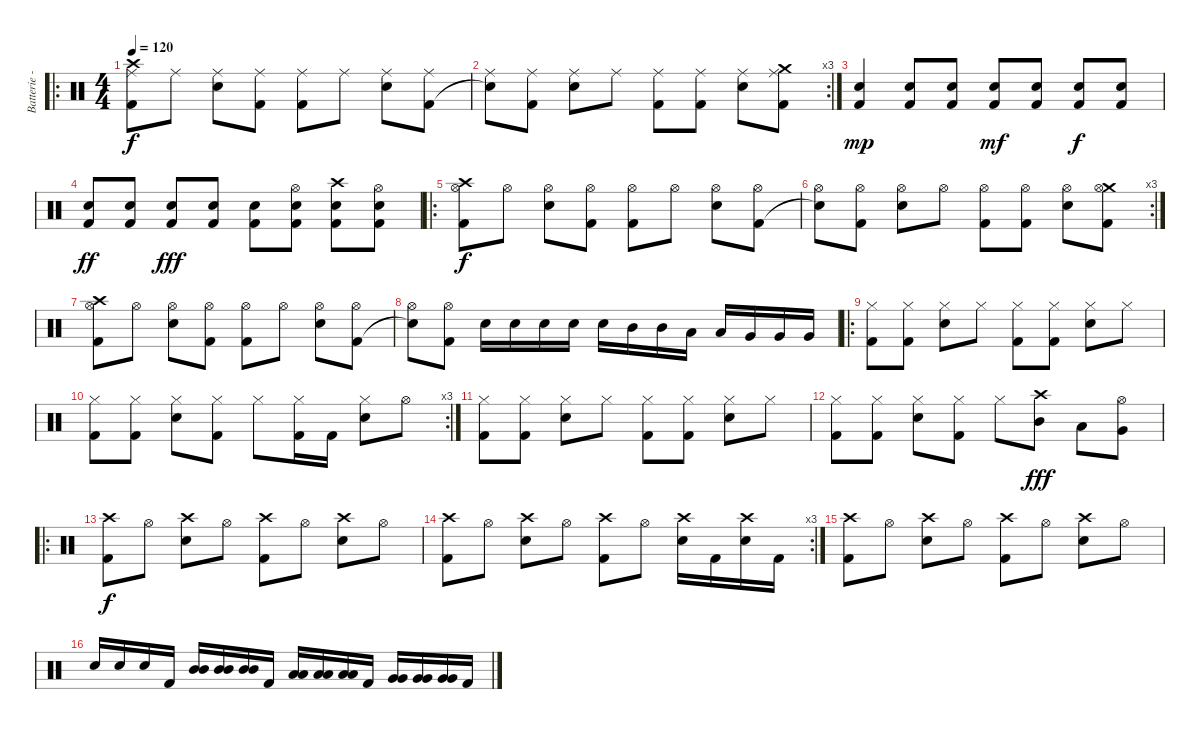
\track ("Batterie - Joe" "Batterie -") {instrument percussion}
\staff {score}
\articulation defaults
\ro
\ts (4 4)
\tempo 120
\clef neutral
\ks c
("Crash high (hit)" "Ride (middle)" "Kick (hit) 2").8{dy f} "Ride (middle)".8 ("Ride (middle)" "Electric Snare (hit)").8 ("Ride (middle)" "Kick (hit) 2").8 ("Ride (middle)" "Kick (hit) 2").8 "Ride (middle)".8 ("Ride (middle)" "Electric Snare (hit)").8 ("Ride (middle)" "Kick (hit) 2").8 |
\rc 3
("Ride (middle)" "Snare (hit)"{t}).8 ("Ride (middle)" "Kick (hit) 2").8 ("Ride (middle)" "Electric Snare (hit)").8 "Ride (middle)".8 ("Ride (middle)" "Kick (hit) 2").8 ("Ride (middle)" "Kick (hit) 2").8 ("Ride (middle)" "Electric Snare (hit)").8 ("Crash medium (hit)" "Ride (middle)" "Kick (hit) 2").8 |
("Electric Snare (hit)" "Kick (hit) 2").4{dy mp} ("Electric Snare (hit)" "Kick (hit) 2").8 ("Electric Snare (hit)" "Kick (hit) 2").8 ("Electric Snare (hit)" "Kick (hit) 2").8{dy mf} ("Electric Snare (hit)" "Kick (hit) 2").8 ("Electric Snare (hit)" "Kick (hit) 2").8{dy f} ("Electric Snare (hit)" "Kick (hit) 2").8 |
("Electric Snare (hit)" "Kick (hit) 2").8{dy ff} ("Electric Snare (hit)" "Kick (hit) 2").8 ("Electric Snare (hit)" "Kick (hit) 2").8{dy fff} ("Electric Snare (hit)" "Kick (hit) 2").8 ("Electric Snare (hit)" "Kick (hit) 2").8 ("Hi-Hat (open)" "Electric Snare (hit)" "Kick (hit) 2").8 ("Crash high (hit)" "Electric Snare (hit)" "Kick (hit) 2").8 ("Hi-Hat (open)" "Electric Snare (hit)" "Kick (hit) 2").8 |
\ro
("Crash high (hit)" "Hi-Hat (open)" "Kick (hit) 2").8{dy f} "Hi-Hat (open)".8 ("Hi-Hat (open)" "Electric Snare (hit)").8 ("Hi-Hat (open)" "Kick (hit) 2").8 ("Hi-Hat (open)" "Kick (hit) 2").8 "Hi-Hat (open)".8 ("Hi-Hat (open)" "Electric Snare (hit)").8 ("Hi-Hat (open)" "Kick (hit) 2").8 |
\rc 3
("Hi-Hat (open)" "Snare (hit)"{t}).8 ("Hi-Hat (open)" "Kick (hit) 2").8 ("Hi-Hat (open)" "Electric Snare (hit)").8 "Hi-Hat (open)".8 ("Hi-Hat (open)" "Kick (hit) 2").8 ("Hi-Hat (open)" "Kick (hit) 2").8 ("Hi-Hat (open)" "Electric Snare (hit)").8 ("Crash medium (hit)" "Hi-Hat (open)" "Kick (hit) 2").8 |
("Crash high (hit)" "Hi-Hat (open)" "Kick (hit) 2").8 "Hi-Hat (open)".8 ("Hi-Hat (open)" "Electric Snare (hit)").8 ("Hi-Hat (open)" "Kick (hit) 2").8 ("Hi-Hat (open)" "Kick (hit) 2").8 "Hi-Hat (open)".8 ("Hi-Hat (open)" "Electric Snare (hit)").8 ("Hi-Hat (open)" "Kick (hit) 2").8 |
("Hi-Hat (open)" "Snare (hit)"{t}).8 ("Hi-Hat (open)" "Kick (hit) 2").8 "Electric Snare (hit)".16 "Electric Snare (hit)".16 "Electric Snare (hit)".16 "Electric Snare (hit)".16 "Electric Snare (hit)".16 "Mid Tom (hit)".16 "Mid Tom (hit)".16 "Low Tom (hit)".16 "Low Tom (hit)".16 "Very Low Tom (hit)".16 "Very Low Tom (hit)".16 "Very Low Tom (hit)".16 |
\ro
("Hi-Hat (closed)" "Kick (hit) 2").8 ("Hi-Hat (closed)" "Kick (hit) 2").8 ("Hi-Hat (closed)" "Electric Snare (hit)").8 "Hi-Hat (closed)".8 ("Hi-Hat (closed)" "Kick (hit) 2").8 ("Hi-Hat (closed)" "Kick (hit) 2").8 ("Hi-Hat (closed)" "Electric Snare (hit)").8 "Hi-Hat (closed)".8 |
\rc 3
("Hi-Hat (closed)" "Kick (hit) 2").8 ("Hi-Hat (closed)" "Kick (hit) 2").8 ("Hi-Hat (closed)" "Electric Snare (hit)").8 ("Hi-Hat (closed)" "Kick (hit) 2").8 "Hi-Hat (closed)".8 ("Hi-Hat (closed)" "Kick (hit) 2").16 "Kick (hit) 2".16 ("Hi-Hat (closed)" "Electric Snare (hit)").8 "Hi-Hat (open)".8 |
("Hi-Hat (closed)" "Kick (hit) 2").8 ("Hi-Hat (closed)" "Kick (hit) 2").8 ("Hi-Hat (closed)" "Electric Snare (hit)").8 "Hi-Hat (closed)".8 ("Hi-Hat (closed)" "Kick (hit) 2").8 ("Hi-Hat (closed)" "Kick (hit) 2").8 ("Hi-Hat (closed)" "Electric Snare (hit)").8 "Hi-Hat (closed)".8 |
("Hi-Hat (closed)" "Kick (hit) 2").8 ("Hi-Hat (closed)" "Kick (hit) 2").8 ("Hi-Hat (closed)" "Electric Snare (hit)").8 ("Hi-Hat (closed)" "Kick (hit) 2").8 "Hi-Hat (closed)".8 ("Mid Tom (hit)" "Crash high (hit)").8{dy fff} "Low Tom (hit)".8 ("Very Low Tom (hit)" "Hi-Hat (open)").8 |
\ro
("Crash high (hit)" "Kick (hit) 2").8{dy f} "Hi-Hat (open)".8 ("Crash high (hit)" "Electric Snare (hit)").8 "Hi-Hat (open)".8 ("Crash high (hit)" "Kick (hit) 2").8 "Hi-Hat (open)".8 ("Crash high (hit)" "Electric Snare (hit)").8 "Hi-Hat (open)".8 |
\rc 3
("Crash high (hit)" "Kick (hit) 2").8 "Hi-Hat (open)".8 ("Crash high (hit)" "Electric Snare (hit)").8 "Hi-Hat (open)".8 ("Crash high (hit)" "Kick (hit) 2").8 "Hi-Hat (open)".8 ("Crash high (hit)" "Electric Snare (hit)").16 "Kick (hit) 2".16 ("Crash high (hit)" "Electric Snare (hit)").16 "Kick (hit) 2".16 |
("Crash high (hit)" "Kick (hit) 2").8 "Hi-Hat (open)".8 ("Crash high (hit)" "Electric Snare (hit)").8 "Hi-Hat (open)".8 ("Crash high (hit)" "Kick (hit) 2").8 "Hi-Hat (open)".8 ("Crash high (hit)" "Electric Snare (hit)").8 "Hi-Hat (open)".8 |
"Electric Snare (hit)".16 "Electric Snare (hit)".16 "Electric Snare (hit)".16 "Kick (hit) 2".16 ("Mid Tom (hit)" "Mid Tom (hit)").16 ("Mid Tom (hit)" "Mid Tom (hit)").16 ("Mid Tom (hit)" "Mid Tom (hit)").16 "Kick (hit) 2".16 ("Low Tom (hit)" "Low Tom (hit)").16 ("Low Tom (hit)" "Low Tom (hit)").16 ("Low Tom (hit)" "Low Tom (hit)").16 "Kick (hit) 2".16 ("Very Low Tom (hit)" "Very Low Tom (hit)").16 ("Very Low Tom (hit)" "Very Low Tom (hit)").16 ("Very Low Tom (hit)" "Very Low Tom (hit)").16 "Kick (hit) 2".16
